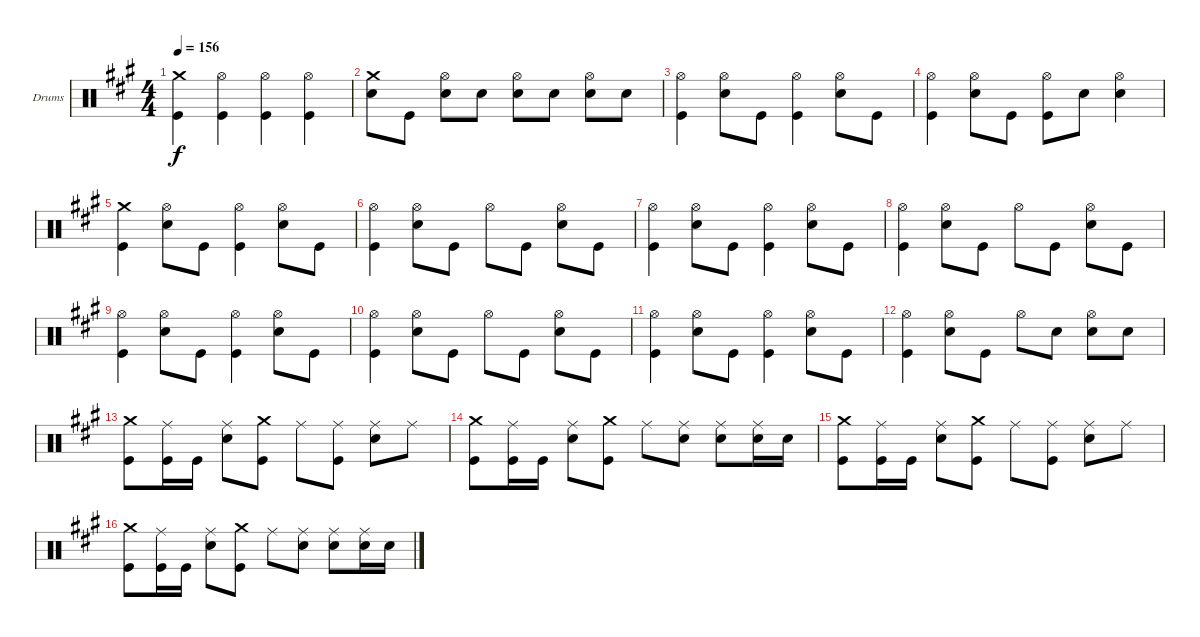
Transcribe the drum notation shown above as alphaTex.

\defaultSystemsLayout 4
\bracketExtendMode groupsimilarinstruments
\firstSystemTrackNameOrientation horizontal
\otherSystemsTrackNameOrientation horizontal
\track ("Drumkit" "Drums") {instrument percussion}
\staff {score}
\articulation defaults
\ts (4 4)
\tempo 156
\clef neutral
\scale
1.05296
\ks a
("Kick (hit)" "Crash medium (hit)").4{dy f} ("Kick (hit)" "Hi-Hat (open)").4 ("Kick (hit)" "Hi-Hat (open)").4 ("Kick (hit)" "Hi-Hat (open)").4 |
\scale
0.973518 ("Snare (hit) 2" "Crash medium (hit)").8 "Kick (hit)".8 ("Snare (hit) 2" "Hi-Hat (open)").8 "Snare (hit) 2".8 ("Snare (hit) 2" "Hi-Hat (open)").8 "Snare (hit) 2".8 ("Snare (hit) 2" "Hi-Hat (open)").8 "Snare (hit) 2".8 |
\scale
0.973518 ("Hi-Hat (open)" "Kick (hit)").4 ("Hi-Hat (open)" "Snare (hit) 2").8 "Kick (hit)".8 ("Hi-Hat (open)" "Kick (hit)").4 ("Hi-Hat (open)" "Snare (hit) 2").8 "Kick (hit)".8 |
\scale
1.05296 ("Hi-Hat (open)" "Kick (hit)").4 ("Hi-Hat (open)" "Snare (hit) 2").8 "Kick (hit)".8 ("Hi-Hat (open)" "Kick (hit)").8 "Snare (hit) 2".8 ("Hi-Hat (open)" "Snare (hit) 2").4 |
\scale
0.973518 ("Crash medium (hit)" "Kick (hit)").4 ("Hi-Hat (open)" "Snare (hit) 2").8 "Kick (hit)".8 ("Hi-Hat (open)" "Kick (hit)").4 ("Hi-Hat (open)" "Snare (hit) 2").8 "Kick (hit)".8 |
\scale
0.973518 ("Hi-Hat (open)" "Kick (hit)").4 ("Hi-Hat (open)" "Snare (hit) 2").8 "Kick (hit)".8 "Hi-Hat (open)".8 "Kick (hit)".8 ("Hi-Hat (open)" "Snare (hit) 2").8 "Kick (hit)".8 |
\scale
1.05296 ("Hi-Hat (open)" "Kick (hit)").4 ("Hi-Hat (open)" "Snare (hit) 2").8 "Kick (hit)".8 ("Hi-Hat (open)" "Kick (hit)").4 ("Hi-Hat (open)" "Snare (hit) 2").8 "Kick (hit)".8 |
\scale
0.973518 ("Hi-Hat (open)" "Kick (hit)").4 ("Hi-Hat (open)" "Snare (hit) 2").8 "Kick (hit)".8 "Hi-Hat (open)".8 "Kick (hit)".8 ("Hi-Hat (open)" "Snare (hit) 2").8 "Kick (hit)".8 |
\scale
0.973518 ("Kick (hit)" "Hi-Hat (open)").4 ("Snare (hit) 2" "Hi-Hat (open)").8 "Kick (hit)".8 ("Kick (hit)" "Hi-Hat (open)").4 ("Snare (hit) 2" "Hi-Hat (open)").8 "Kick (hit)".8 |
\scale
1.05296 ("Kick (hit)" "Hi-Hat (open)").4 ("Snare (hit) 2" "Hi-Hat (open)").8 "Kick (hit)".8 "Hi-Hat (open)".8 "Kick (hit)".8 ("Snare (hit) 2" "Hi-Hat (open)").8 "Kick (hit)".8 |
\scale
0.973518 ("Kick (hit)" "Hi-Hat (open)").4 ("Snare (hit) 2" "Hi-Hat (open)").8 "Kick (hit)".8 ("Kick (hit)" "Hi-Hat (open)").4 ("Snare (hit) 2" "Hi-Hat (open)").8 "Kick (hit)".8 |
\scale
0.973518 ("Kick (hit)" "Hi-Hat (open)").4 ("Snare (hit) 2" "Hi-Hat (open)").8 "Kick (hit)".8 "Hi-Hat (open)".8 "Snare (hit) 2".8 ("Snare (hit) 2" "Hi-Hat (open)").8 "Snare (hit) 2".8 |
\scale
1.05296 ("Kick (hit)" "Crash medium (hit)").8 ("Ride (middle)" "Kick (hit)").16 "Kick (hit)".16 ("Snare (hit) 2" "Ride (middle)").8 ("Crash medium (hit)" "Kick (hit)").8 "Ride (middle)".8 ("Ride (middle)" "Kick (hit)").8 ("Snare (hit) 2" "Ride (middle)").8 "Ride (middle)".8 |
\scale
0.973518 ("Kick (hit)" "Crash medium (hit)").8 ("Ride (middle)" "Kick (hit)").16 "Kick (hit)".16 ("Snare (hit) 2" "Ride (middle)").8 ("Crash medium (hit)" "Kick (hit)").8 "Ride (middle)".8 ("Ride (middle)" "Snare (hit) 2").8 ("Snare (hit) 2" "Ride (middle)").8 ("Ride (middle)" "Snare (hit) 2").16 "Snare (hit) 2".16 |
\scale
0.973518 ("Kick (hit)" "Crash medium (hit)").8 ("Ride (middle)" "Kick (hit)").16 "Kick (hit)".16 ("Snare (hit) 2" "Ride (middle)").8 ("Crash medium (hit)" "Kick (hit)").8 "Ride (middle)".8 ("Ride (middle)" "Kick (hit)").8 ("Snare (hit) 2" "Ride (middle)").8 "Ride (middle)".8 |
\scale
1.05296 ("Kick (hit)" "Crash medium (hit)").8 ("Ride (middle)" "Kick (hit)").16 "Kick (hit)".16 ("Snare (hit) 2" "Ride (middle)").8 ("Crash medium (hit)" "Kick (hit)").8 "Ride (middle)".8 ("Ride (middle)" "Snare (hit) 2").8 ("Snare (hit) 2" "Ride (middle)").8 ("Ride (middle)" "Snare (hit) 2").16 "Snare (hit) 2".16
